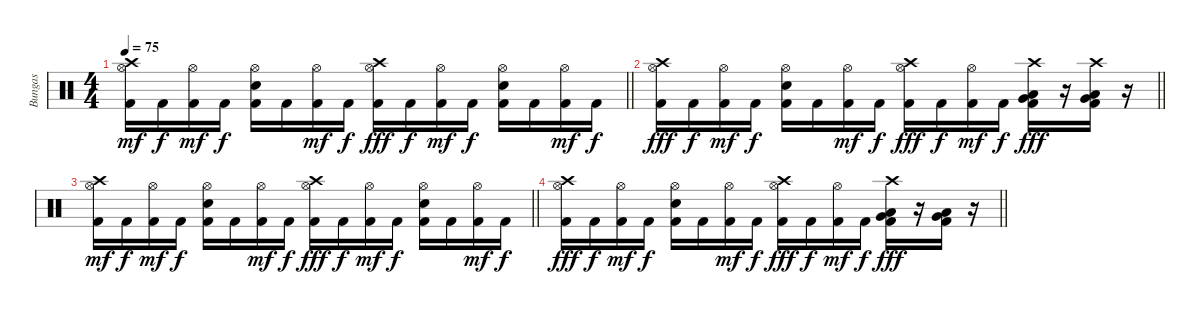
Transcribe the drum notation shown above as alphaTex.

\track ("Bungas" "Bungas") {instrument percussion}
\staff {score}
\articulation defaults
\ts (4 4)
\tempo 75
\clef neutral
\barLineRight lightlight
\ks c
("Hi-Hat (open)" "Crash high (hit)" "Kick (hit) 2").16{dy mf} "Kick (hit) 2".16{dy f} ("Hi-Hat (open)" "Kick (hit) 2").16{dy mf} "Kick (hit) 2".16{dy f} ("Hi-Hat (open)" "Electric Snare (hit)" "Kick (hit) 2").16 "Kick (hit) 2".16 ("Hi-Hat (open)" "Kick (hit) 2").16{dy mf} "Kick (hit) 2".16{dy f} ("Hi-Hat (open)" "Crash high (hit)" "Kick (hit) 2").16{dy fff} "Kick (hit) 2".16{dy f} ("Hi-Hat (open)" "Kick (hit) 2").16{dy mf} "Kick (hit) 2".16{dy f} ("Hi-Hat (open)" "Electric Snare (hit)" "Kick (hit) 2").16 "Kick (hit) 2".16 ("Hi-Hat (open)" "Kick (hit) 2").16{dy mf} "Kick (hit) 2".16{dy f} |
\barLineRight lightlight
("Hi-Hat (open)" "Crash high (hit)" "Kick (hit) 2").16{dy fff} "Kick (hit) 2".16{dy f} ("Hi-Hat (open)" "Kick (hit) 2").16{dy mf} "Kick (hit) 2".16{dy f} ("Hi-Hat (open)" "Electric Snare (hit)" "Kick (hit) 2").16 "Kick (hit) 2".16 ("Hi-Hat (open)" "Kick (hit) 2").16{dy mf} "Kick (hit) 2".16{dy f} ("Hi-Hat (open)" "Crash high (hit)" "Kick (hit) 2").16{dy fff} "Kick (hit) 2".16{dy f} ("Hi-Hat (open)" "Kick (hit) 2").16{dy mf} "Kick (hit) 2".16{dy f} ("Very Low Tom (hit)" "Low Floor Tom (hit)" "Crash high (hit)" "Kick (hit) 2").16{dy fff} r.16 ("Very Low Tom (hit)" "Low Floor Tom (hit)" "Crash high (hit)" "Kick (hit) 2").16 r.16 |
\barLineRight lightlight
("Hi-Hat (open)" "Crash high (hit)" "Kick (hit) 2").16{dy mf} "Kick (hit) 2".16{dy f} ("Hi-Hat (open)" "Kick (hit) 2").16{dy mf} "Kick (hit) 2".16{dy f} ("Hi-Hat (open)" "Electric Snare (hit)" "Kick (hit) 2").16 "Kick (hit) 2".16 ("Hi-Hat (open)" "Kick (hit) 2").16{dy mf} "Kick (hit) 2".16{dy f} ("Hi-Hat (open)" "Crash high (hit)" "Kick (hit) 2").16{dy fff} "Kick (hit) 2".16{dy f} ("Hi-Hat (open)" "Kick (hit) 2").16{dy mf} "Kick (hit) 2".16{dy f} ("Hi-Hat (open)" "Electric Snare (hit)" "Kick (hit) 2").16 "Kick (hit) 2".16 ("Hi-Hat (open)" "Kick (hit) 2").16{dy mf} "Kick (hit) 2".16{dy f} |
\barLineRight lightlight
("Hi-Hat (open)" "Crash high (hit)" "Kick (hit) 2").16{dy fff} "Kick (hit) 2".16{dy f} ("Hi-Hat (open)" "Kick (hit) 2").16{dy mf} "Kick (hit) 2".16{dy f} ("Hi-Hat (open)" "Electric Snare (hit)" "Kick (hit) 2").16 "Kick (hit) 2".16 ("Hi-Hat (open)" "Kick (hit) 2").16{dy mf} "Kick (hit) 2".16{dy f} ("Hi-Hat (open)" "Crash high (hit)" "Kick (hit) 2").16{dy fff} "Kick (hit) 2".16{dy f} ("Hi-Hat (open)" "Kick (hit) 2").16{dy mf} "Kick (hit) 2".16{dy f} ("Very Low Tom (hit)" "Low Floor Tom (hit)" "Crash high (hit)" "Kick (hit) 2").16{dy fff} r.16 ("Very Low Tom (hit)" "Low Floor Tom (hit)" "Kick (hit) 2").16 r.16
